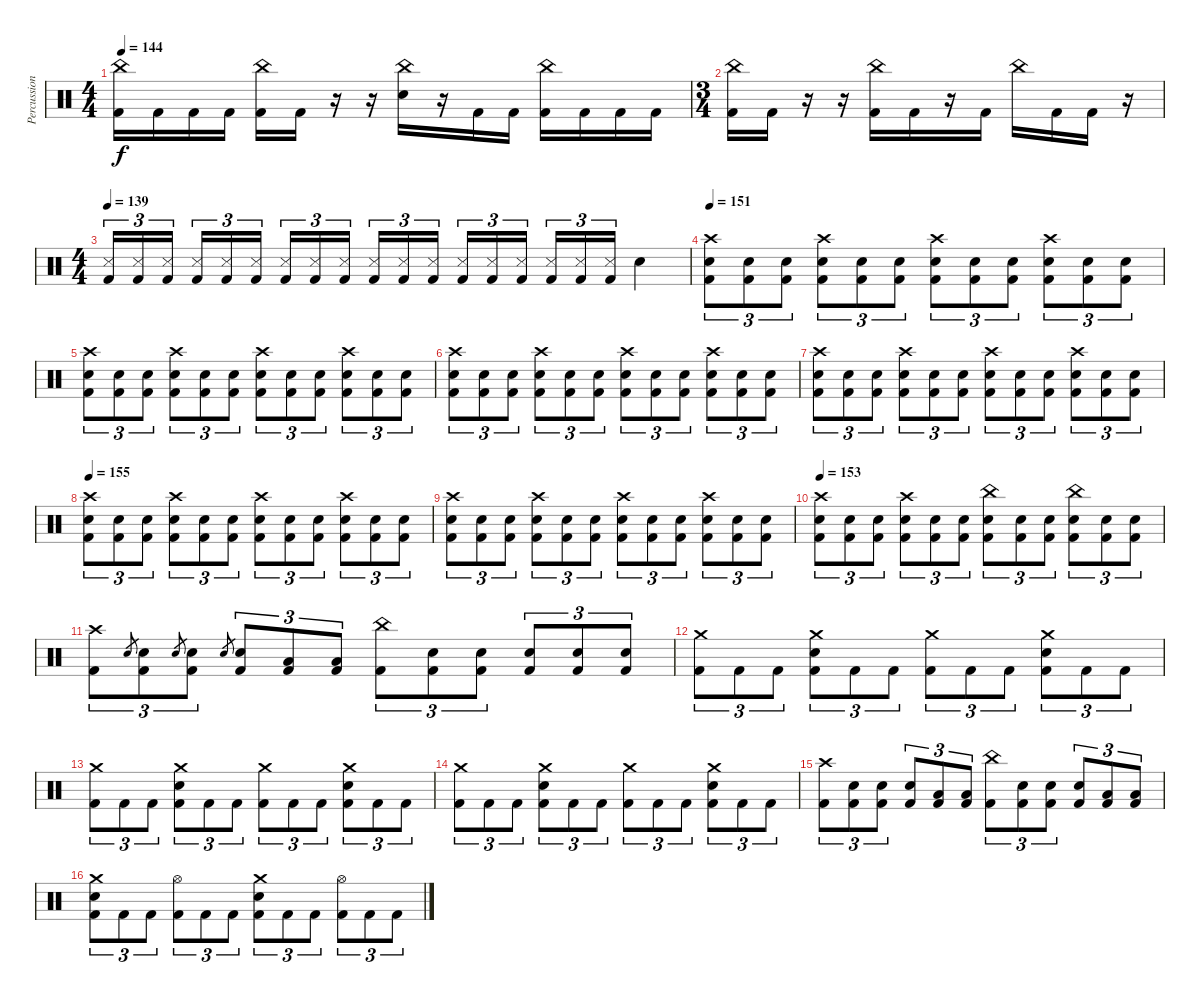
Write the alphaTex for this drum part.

\track ("Percussion" "Percussion") {instrument percussion}
\staff {score}
\articulation defaults
\ts (4 4)
\tempo 144
\clef neutral
\ks c
("China (hit)" "Kick (hit) 2").16{dy f} "Kick (hit) 2".16 "Kick (hit) 2".16 "Kick (hit) 2".16 ("China (hit)" "Kick (hit) 2").16 "Kick (hit) 2".16 r.16 r.16 ("China (hit)" "Snare (hit) 2").16 r.16 "Kick (hit) 2".16 "Kick (hit) 2".16 ("China (hit)" "Kick (hit) 2").16 "Kick (hit) 2".16 "Kick (hit) 2".16 "Kick (hit) 2".16 |
\ts (3 4)
("China (hit)" "Kick (hit) 2").16 "Kick (hit) 2".16 r.16 r.16 ("China (hit)" "Kick (hit) 2").16 "Kick (hit) 2".16 r.16 "Kick (hit) 2".16 "China (hit)".16 "Kick (hit) 2".16 "Kick (hit) 2".16 r.16 |
\ts (4 4)
\tempo 139
("Snare (side stick) 3" "Kick (hit) 2").16{tu (3 2)} ("Snare (side stick) 3" "Kick (hit) 2").16{tu (3 2)} ("Snare (side stick) 3" "Kick (hit) 2").16{tu (3 2) beam splitsecondary} ("Snare (side stick) 3" "Kick (hit) 2").16{tu (3 2)} ("Snare (side stick) 3" "Kick (hit) 2").16{tu (3 2)} ("Snare (side stick) 3" "Kick (hit) 2").16{tu (3 2)} ("Snare (side stick) 3" "Kick (hit) 2").16{tu (3 2)} ("Snare (side stick) 3" "Kick (hit) 2").16{tu (3 2)} ("Snare (side stick) 3" "Kick (hit) 2").16{tu (3 2) beam splitsecondary} ("Snare (side stick) 3" "Kick (hit) 2").16{tu (3 2)} ("Snare (side stick) 3" "Kick (hit) 2").16{tu (3 2)} ("Snare (side stick) 3" "Kick (hit) 2").16{tu (3 2)} ("Snare (side stick) 3" "Kick (hit) 2").16{tu (3 2)} ("Snare (side stick) 3" "Kick (hit) 2").16{tu (3 2)} ("Snare (side stick) 3" "Kick (hit) 2").16{tu (3 2) beam splitsecondary} ("Snare (side stick) 3" "Kick (hit) 2").16{tu (3 2)} ("Snare (side stick) 3" "Kick (hit) 2").16{tu (3 2)} ("Snare (side stick) 3" "Kick (hit) 2").16{tu (3 2)} "Snare (hit) 2".4 |
\tempo 151
("Crash high (hit)" "Snare (hit) 2" "Kick (hit) 2").8{tu (3 2)} ("Snare (hit) 2" "Kick (hit) 2").8{tu (3 2)} ("Snare (hit) 2" "Kick (hit) 2").8{tu (3 2)} ("Crash high (hit)" "Snare (hit) 2" "Kick (hit) 2").8{tu (3 2)} ("Snare (hit) 2" "Kick (hit) 2").8{tu (3 2)} ("Snare (hit) 2" "Kick (hit) 2").8{tu (3 2)} ("Crash high (hit)" "Snare (hit) 2" "Kick (hit) 2").8{tu (3 2)} ("Snare (hit) 2" "Kick (hit) 2").8{tu (3 2)} ("Snare (hit) 2" "Kick (hit) 2").8{tu (3 2)} ("Crash high (hit)" "Snare (hit) 2" "Kick (hit) 2").8{tu (3 2)} ("Snare (hit) 2" "Kick (hit) 2").8{tu (3 2)} ("Snare (hit) 2" "Kick (hit) 2").8{tu (3 2)} |
("Crash high (hit)" "Snare (hit) 2" "Kick (hit) 2").8{tu (3 2)} ("Snare (hit) 2" "Kick (hit) 2").8{tu (3 2)} ("Snare (hit) 2" "Kick (hit) 2").8{tu (3 2)} ("Crash high (hit)" "Snare (hit) 2" "Kick (hit) 2").8{tu (3 2)} ("Snare (hit) 2" "Kick (hit) 2").8{tu (3 2)} ("Snare (hit) 2" "Kick (hit) 2").8{tu (3 2)} ("Crash high (hit)" "Snare (hit) 2" "Kick (hit) 2").8{tu (3 2)} ("Snare (hit) 2" "Kick (hit) 2").8{tu (3 2)} ("Snare (hit) 2" "Kick (hit) 2").8{tu (3 2)} ("Crash high (hit)" "Snare (hit) 2" "Kick (hit) 2").8{tu (3 2)} ("Snare (hit) 2" "Kick (hit) 2").8{tu (3 2)} ("Snare (hit) 2" "Kick (hit) 2").8{tu (3 2)} |
("Crash high (hit)" "Snare (hit) 2" "Kick (hit) 2").8{tu (3 2)} ("Snare (hit) 2" "Kick (hit) 2").8{tu (3 2)} ("Snare (hit) 2" "Kick (hit) 2").8{tu (3 2)} ("Crash high (hit)" "Snare (hit) 2" "Kick (hit) 2").8{tu (3 2)} ("Snare (hit) 2" "Kick (hit) 2").8{tu (3 2)} ("Snare (hit) 2" "Kick (hit) 2").8{tu (3 2)} ("Crash high (hit)" "Snare (hit) 2" "Kick (hit) 2").8{tu (3 2)} ("Snare (hit) 2" "Kick (hit) 2").8{tu (3 2)} ("Snare (hit) 2" "Kick (hit) 2").8{tu (3 2)} ("Crash high (hit)" "Snare (hit) 2" "Kick (hit) 2").8{tu (3 2)} ("Snare (hit) 2" "Kick (hit) 2").8{tu (3 2)} ("Snare (hit) 2" "Kick (hit) 2").8{tu (3 2)} |
("Crash high (hit)" "Snare (hit) 2" "Kick (hit) 2").8{tu (3 2)} ("Snare (hit) 2" "Kick (hit) 2").8{tu (3 2)} ("Snare (hit) 2" "Kick (hit) 2").8{tu (3 2)} ("Crash high (hit)" "Snare (hit) 2" "Kick (hit) 2").8{tu (3 2)} ("Snare (hit) 2" "Kick (hit) 2").8{tu (3 2)} ("Snare (hit) 2" "Kick (hit) 2").8{tu (3 2)} ("Crash high (hit)" "Snare (hit) 2" "Kick (hit) 2").8{tu (3 2)} ("Snare (hit) 2" "Kick (hit) 2").8{tu (3 2)} ("Snare (hit) 2" "Kick (hit) 2").8{tu (3 2)} ("Crash high (hit)" "Snare (hit) 2" "Kick (hit) 2").8{tu (3 2)} ("Snare (hit) 2" "Kick (hit) 2").8{tu (3 2)} ("Snare (hit) 2" "Kick (hit) 2").8{tu (3 2)} |
\tempo 155
("Crash high (hit)" "Snare (hit) 2" "Kick (hit) 2").8{tu (3 2)} ("Snare (hit) 2" "Kick (hit) 2").8{tu (3 2)} ("Snare (hit) 2" "Kick (hit) 2").8{tu (3 2)} ("Crash high (hit)" "Snare (hit) 2" "Kick (hit) 2").8{tu (3 2)} ("Snare (hit) 2" "Kick (hit) 2").8{tu (3 2)} ("Snare (hit) 2" "Kick (hit) 2").8{tu (3 2)} ("Crash high (hit)" "Snare (hit) 2" "Kick (hit) 2").8{tu (3 2)} ("Snare (hit) 2" "Kick (hit) 2").8{tu (3 2)} ("Snare (hit) 2" "Kick (hit) 2").8{tu (3 2)} ("Crash high (hit)" "Snare (hit) 2" "Kick (hit) 2").8{tu (3 2)} ("Snare (hit) 2" "Kick (hit) 2").8{tu (3 2)} ("Snare (hit) 2" "Kick (hit) 2").8{tu (3 2)} |
("Crash high (hit)" "Snare (hit) 2" "Kick (hit) 2").8{tu (3 2)} ("Snare (hit) 2" "Kick (hit) 2").8{tu (3 2)} ("Snare (hit) 2" "Kick (hit) 2").8{tu (3 2)} ("Crash high (hit)" "Snare (hit) 2" "Kick (hit) 2").8{tu (3 2)} ("Snare (hit) 2" "Kick (hit) 2").8{tu (3 2)} ("Snare (hit) 2" "Kick (hit) 2").8{tu (3 2)} ("Crash high (hit)" "Snare (hit) 2" "Kick (hit) 2").8{tu (3 2)} ("Snare (hit) 2" "Kick (hit) 2").8{tu (3 2)} ("Snare (hit) 2" "Kick (hit) 2").8{tu (3 2)} ("Crash high (hit)" "Snare (hit) 2" "Kick (hit) 2").8{tu (3 2)} ("Snare (hit) 2" "Kick (hit) 2").8{tu (3 2)} ("Snare (hit) 2" "Kick (hit) 2").8{tu (3 2)} |
\tempo 153
("Crash high (hit)" "Snare (hit) 2" "Kick (hit) 2").8{tu (3 2)} ("Snare (hit) 2" "Kick (hit) 2").8{tu (3 2)} ("Snare (hit) 2" "Kick (hit) 2").8{tu (3 2)} ("Crash high (hit)" "Snare (hit) 2" "Kick (hit) 2").8{tu (3 2)} ("Snare (hit) 2" "Kick (hit) 2").8{tu (3 2)} ("Snare (hit) 2" "Kick (hit) 2").8{tu (3 2)} ("China (hit)" "Snare (hit) 2" "Kick (hit) 2").8{tu (3 2)} ("Snare (hit) 2" "Kick (hit) 2").8{tu (3 2)} ("Snare (hit) 2" "Kick (hit) 2").8{tu (3 2)} ("China (hit)" "Snare (hit) 2" "Kick (hit) 2").8{tu (3 2)} ("Snare (hit) 2" "Kick (hit) 2").8{tu (3 2)} ("Snare (hit) 2" "Kick (hit) 2").8{tu (3 2)} |
("Crash high (hit)" "Kick (hit) 2").8{tu (3 2)} "Snare (hit) 2".8{gr} ("Snare (hit) 2" "Kick (hit) 2").8{tu (3 2)} "Snare (hit) 2".8{gr} ("Snare (hit) 2" "Kick (hit) 2").8{tu (3 2)} "Snare (hit) 2".8{gr} ("Snare (hit) 2" "Kick (hit) 2").8{tu (3 2)} ("Low Tom (hit)" "Kick (hit) 2").8{tu (3 2)} ("Low Tom (hit)" "Kick (hit) 2").8{tu (3 2)} ("China (hit)" "Kick (hit) 2").8{tu (3 2)} ("Snare (hit) 2" "Kick (hit) 2").8{tu (3 2)} ("Snare (hit) 2" "Kick (hit) 2").8{tu (3 2)} ("Snare (hit) 2" "Kick (hit) 2").8{tu (3 2)} ("Snare (hit) 2" "Kick (hit) 2").8{tu (3 2)} ("Snare (hit) 2" "Kick (hit) 2").8{tu (3 2)} |
("Crash medium (hit)" "Kick (hit) 2").8{tu (3 2)} "Kick (hit) 2".8{tu (3 2)} "Kick (hit) 2".8{tu (3 2)} ("Crash medium (hit)" "Snare (hit) 2" "Kick (hit) 2").8{tu (3 2)} "Kick (hit) 2".8{tu (3 2)} "Kick (hit) 2".8{tu (3 2)} ("Crash medium (hit)" "Kick (hit) 2").8{tu (3 2)} "Kick (hit) 2".8{tu (3 2)} "Kick (hit) 2".8{tu (3 2)} ("Crash medium (hit)" "Snare (hit) 2" "Kick (hit) 2").8{tu (3 2)} "Kick (hit) 2".8{tu (3 2)} "Kick (hit) 2".8{tu (3 2)} |
("Crash medium (hit)" "Kick (hit) 2").8{tu (3 2)} "Kick (hit) 2".8{tu (3 2)} "Kick (hit) 2".8{tu (3 2)} ("Crash medium (hit)" "Snare (hit) 2" "Kick (hit) 2").8{tu (3 2)} "Kick (hit) 2".8{tu (3 2)} "Kick (hit) 2".8{tu (3 2)} ("Crash medium (hit)" "Kick (hit) 2").8{tu (3 2)} "Kick (hit) 2".8{tu (3 2)} "Kick (hit) 2".8{tu (3 2)} ("Crash medium (hit)" "Snare (hit) 2" "Kick (hit) 2").8{tu (3 2)} "Kick (hit) 2".8{tu (3 2)} "Kick (hit) 2".8{tu (3 2)} |
("Crash medium (hit)" "Kick (hit) 2").8{tu (3 2)} "Kick (hit) 2".8{tu (3 2)} "Kick (hit) 2".8{tu (3 2)} ("Crash medium (hit)" "Snare (hit) 2" "Kick (hit) 2").8{tu (3 2)} "Kick (hit) 2".8{tu (3 2)} "Kick (hit) 2".8{tu (3 2)} ("Crash medium (hit)" "Kick (hit) 2").8{tu (3 2)} "Kick (hit) 2".8{tu (3 2)} "Kick (hit) 2".8{tu (3 2)} ("Crash medium (hit)" "Snare (hit) 2" "Kick (hit) 2").8{tu (3 2)} "Kick (hit) 2".8{tu (3 2)} "Kick (hit) 2".8{tu (3 2)} |
("Crash high (hit)" "Kick (hit) 2").8{tu (3 2)} ("Snare (hit) 2" "Kick (hit) 2").8{tu (3 2)} ("Snare (hit) 2" "Kick (hit) 2").8{tu (3 2)} ("Snare (hit) 2" "Kick (hit) 2").8{tu (3 2)} ("Low Tom (hit)" "Kick (hit) 2").8{tu (3 2)} ("Low Tom (hit)" "Kick (hit) 2").8{tu (3 2)} ("China (hit)" "Kick (hit) 2").8{tu (3 2)} ("Snare (hit) 2" "Kick (hit) 2").8{tu (3 2)} ("Snare (hit) 2" "Kick (hit) 2").8{tu (3 2)} ("Snare (hit) 2" "Kick (hit) 2").8{tu (3 2)} ("Low Tom (hit)" "Kick (hit) 2").8{tu (3 2)} ("Low Tom (hit)" "Kick (hit) 2").8{tu (3 2)} |
("Crash medium (hit)" "Snare (hit) 2" "Kick (hit) 2").8{tu (3 2)} "Kick (hit) 2".8{tu (3 2)} "Kick (hit) 2".8{tu (3 2)} ("Hi-Hat (open)" "Kick (hit) 2").8{tu (3 2)} "Kick (hit) 2".8{tu (3 2)} "Kick (hit) 2".8{tu (3 2)} ("Crash medium (hit)" "Snare (hit) 2" "Kick (hit) 2").8{tu (3 2)} "Kick (hit) 2".8{tu (3 2)} "Kick (hit) 2".8{tu (3 2)} ("Hi-Hat (open)" "Kick (hit) 2").8{tu (3 2)} "Kick (hit) 2".8{tu (3 2)} "Kick (hit) 2".8{tu (3 2)}
